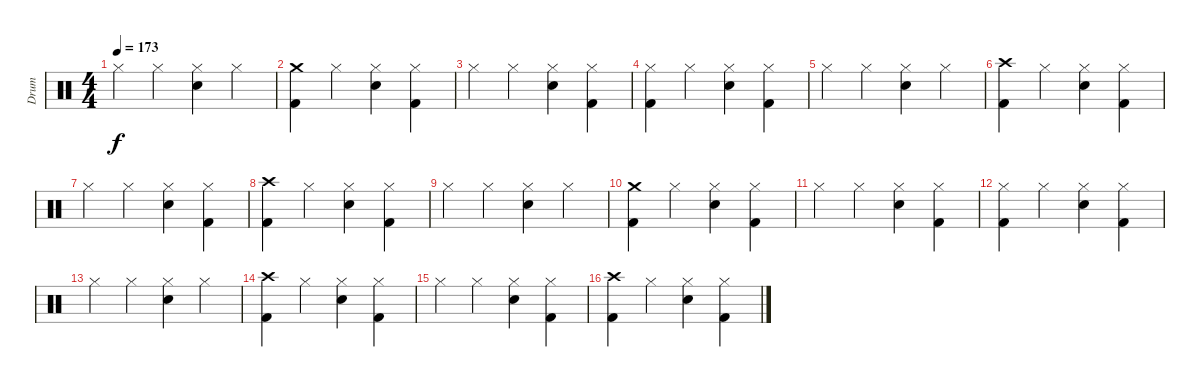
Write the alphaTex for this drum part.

\track ("Drum" "Drum") {instrument percussion}
\staff {score}
\articulation defaults
\ts (4 4)
\tempo 173
\clef neutral
\ks c "Hi-Hat (closed)".4{dy f} "Hi-Hat (closed)".4
("Hi-Hat (closed)" "Electric Snare (hit)").4 "Hi-Hat (closed)".4 |
("Crash medium (hit)" "Kick (hit) 2").4 "Hi-Hat (closed)".4 ("Hi-Hat (closed)" "Electric Snare (hit)").4 ("Hi-Hat (closed)" "Kick (hit) 2").4 |
"Hi-Hat (closed)".4 "Hi-Hat (closed)".4 ("Hi-Hat (closed)" "Electric Snare (hit)").4 ("Hi-Hat (closed)" "Kick (hit) 2").4 |
("Hi-Hat (closed)" "Kick (hit) 2").4 "Hi-Hat (closed)".4 ("Hi-Hat (closed)" "Electric Snare (hit)").4 ("Hi-Hat (closed)" "Kick (hit) 2").4 |
"Hi-Hat (closed)".4 "Hi-Hat (closed)".4 ("Hi-Hat (closed)" "Electric Snare (hit)").4 "Hi-Hat (closed)".4 |
("Crash high (hit)" "Kick (hit) 2").4 "Hi-Hat (closed)".4 ("Hi-Hat (closed)" "Electric Snare (hit)").4 ("Hi-Hat (closed)" "Kick (hit) 2").4 |
"Hi-Hat (closed)".4 "Hi-Hat (closed)".4 ("Hi-Hat (closed)" "Electric Snare (hit)").4 ("Hi-Hat (closed)" "Kick (hit) 2").4 |
("Crash high (hit)" "Kick (hit) 2").4 "Hi-Hat (closed)".4 ("Hi-Hat (closed)" "Electric Snare (hit)").4 ("Hi-Hat (closed)" "Kick (hit) 2").4 |
"Hi-Hat (closed)".4 "Hi-Hat (closed)".4 ("Hi-Hat (closed)" "Electric Snare (hit)").4 "Hi-Hat (closed)".4 |
("Crash medium (hit)" "Kick (hit) 2").4 "Hi-Hat (closed)".4 ("Hi-Hat (closed)" "Electric Snare (hit)").4 ("Hi-Hat (closed)" "Kick (hit) 2").4 |
"Hi-Hat (closed)".4 "Hi-Hat (closed)".4 ("Hi-Hat (closed)" "Electric Snare (hit)").4 ("Hi-Hat (closed)" "Kick (hit) 2").4 |
("Hi-Hat (closed)" "Kick (hit) 2").4 "Hi-Hat (closed)".4 ("Hi-Hat (closed)" "Electric Snare (hit)").4 ("Hi-Hat (closed)" "Kick (hit) 2").4 |
"Hi-Hat (closed)".4 "Hi-Hat (closed)".4 ("Hi-Hat (closed)" "Electric Snare (hit)").4 "Hi-Hat (closed)".4 |
("Crash high (hit)" "Kick (hit) 2").4 "Hi-Hat (closed)".4 ("Hi-Hat (closed)" "Electric Snare (hit)").4 ("Hi-Hat (closed)" "Kick (hit) 2").4 |
"Hi-Hat (closed)".4 "Hi-Hat (closed)".4 ("Hi-Hat (closed)" "Electric Snare (hit)").4 ("Hi-Hat (closed)" "Kick (hit) 2").4 |
("Crash high (hit)" "Kick (hit) 2").4 "Hi-Hat (closed)".4 ("Hi-Hat (closed)" "Electric Snare (hit)").4 ("Hi-Hat (closed)" "Kick (hit) 2").4
